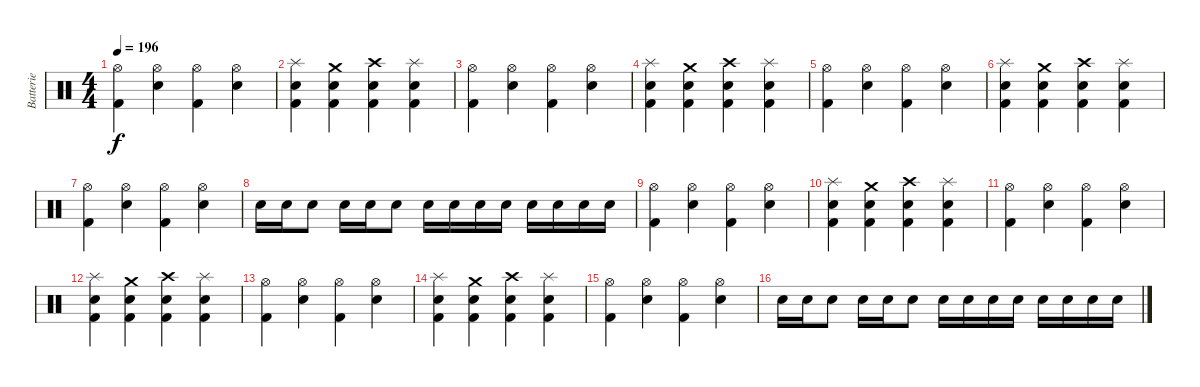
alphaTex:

\track ("Batterie" "Batterie") {instrument percussion}
\staff {score}
\articulation defaults
\ts (4 4)
\tempo 196
\clef neutral
\ks c
("Hi-Hat (open)" "Kick (hit) 2").4{dy f} ("Hi-Hat (open)" "Electric Snare (hit)").4 ("Hi-Hat (open)" "Kick (hit) 2").4 ("Hi-Hat (open)" "Electric Snare (hit)").4 |
("Splash (hit)" "Kick (hit) 2" "Electric Snare (hit)").4 ("Crash medium (hit)" "Kick (hit) 2" "Electric Snare (hit)").4 ("Crash high (hit)" "Kick (hit) 2" "Electric Snare (hit)").4 ("Splash (hit)" "Kick (hit) 2" "Electric Snare (hit)").4 |
("Hi-Hat (open)" "Kick (hit) 2").4 ("Hi-Hat (open)" "Electric Snare (hit)").4 ("Hi-Hat (open)" "Kick (hit) 2").4 ("Hi-Hat (open)" "Electric Snare (hit)").4 |
("Splash (hit)" "Kick (hit) 2" "Electric Snare (hit)").4 ("Crash medium (hit)" "Kick (hit) 2" "Electric Snare (hit)").4 ("Crash high (hit)" "Kick (hit) 2" "Electric Snare (hit)").4 ("Splash (hit)" "Kick (hit) 2" "Electric Snare (hit)").4 |
("Hi-Hat (open)" "Kick (hit) 2").4 ("Hi-Hat (open)" "Electric Snare (hit)").4 ("Hi-Hat (open)" "Kick (hit) 2").4 ("Hi-Hat (open)" "Electric Snare (hit)").4 |
("Splash (hit)" "Kick (hit) 2" "Electric Snare (hit)").4 ("Crash medium (hit)" "Kick (hit) 2" "Electric Snare (hit)").4 ("Crash high (hit)" "Kick (hit) 2" "Electric Snare (hit)").4 ("Splash (hit)" "Kick (hit) 2" "Electric Snare (hit)").4 |
("Hi-Hat (open)" "Kick (hit) 2").4 ("Hi-Hat (open)" "Electric Snare (hit)").4 ("Hi-Hat (open)" "Kick (hit) 2").4 ("Hi-Hat (open)" "Electric Snare (hit)").4 |
"Electric Snare (hit)".16 "Electric Snare (hit)".16 "Electric Snare (hit)".8 "Electric Snare (hit)".16 "Electric Snare (hit)".16 "Electric Snare (hit)".8 "Electric Snare (hit)".16 "Electric Snare (hit)".16 "Electric Snare (hit)".16 "Electric Snare (hit)".16 "Electric Snare (hit)".16 "Electric Snare (hit)".16 "Electric Snare (hit)".16 "Electric Snare (hit)".16 |
("Hi-Hat (open)" "Kick (hit) 2").4 ("Hi-Hat (open)" "Electric Snare (hit)").4 ("Hi-Hat (open)" "Kick (hit) 2").4 ("Hi-Hat (open)" "Electric Snare (hit)").4 |
("Splash (hit)" "Kick (hit) 2" "Electric Snare (hit)").4 ("Crash medium (hit)" "Kick (hit) 2" "Electric Snare (hit)").4 ("Crash high (hit)" "Kick (hit) 2" "Electric Snare (hit)").4 ("Splash (hit)" "Kick (hit) 2" "Electric Snare (hit)").4 |
("Hi-Hat (open)" "Kick (hit) 2").4 ("Hi-Hat (open)" "Electric Snare (hit)").4 ("Hi-Hat (open)" "Kick (hit) 2").4 ("Hi-Hat (open)" "Electric Snare (hit)").4 |
("Splash (hit)" "Kick (hit) 2" "Electric Snare (hit)").4 ("Crash medium (hit)" "Kick (hit) 2" "Electric Snare (hit)").4 ("Crash high (hit)" "Kick (hit) 2" "Electric Snare (hit)").4 ("Splash (hit)" "Kick (hit) 2" "Electric Snare (hit)").4 |
("Hi-Hat (open)" "Kick (hit) 2").4 ("Hi-Hat (open)" "Electric Snare (hit)").4 ("Hi-Hat (open)" "Kick (hit) 2").4 ("Hi-Hat (open)" "Electric Snare (hit)").4 |
("Splash (hit)" "Kick (hit) 2" "Electric Snare (hit)").4 ("Crash medium (hit)" "Kick (hit) 2" "Electric Snare (hit)").4 ("Crash high (hit)" "Kick (hit) 2" "Electric Snare (hit)").4 ("Splash (hit)" "Kick (hit) 2" "Electric Snare (hit)").4 |
("Hi-Hat (open)" "Kick (hit) 2").4 ("Hi-Hat (open)" "Electric Snare (hit)").4 ("Hi-Hat (open)" "Kick (hit) 2").4 ("Hi-Hat (open)" "Electric Snare (hit)").4 |
"Electric Snare (hit)".16 "Electric Snare (hit)".16 "Electric Snare (hit)".8 "Electric Snare (hit)".16 "Electric Snare (hit)".16 "Electric Snare (hit)".8 "Electric Snare (hit)".16 "Electric Snare (hit)".16 "Electric Snare (hit)".16 "Electric Snare (hit)".16 "Electric Snare (hit)".16 "Electric Snare (hit)".16 "Electric Snare (hit)".16 "Electric Snare (hit)".16
